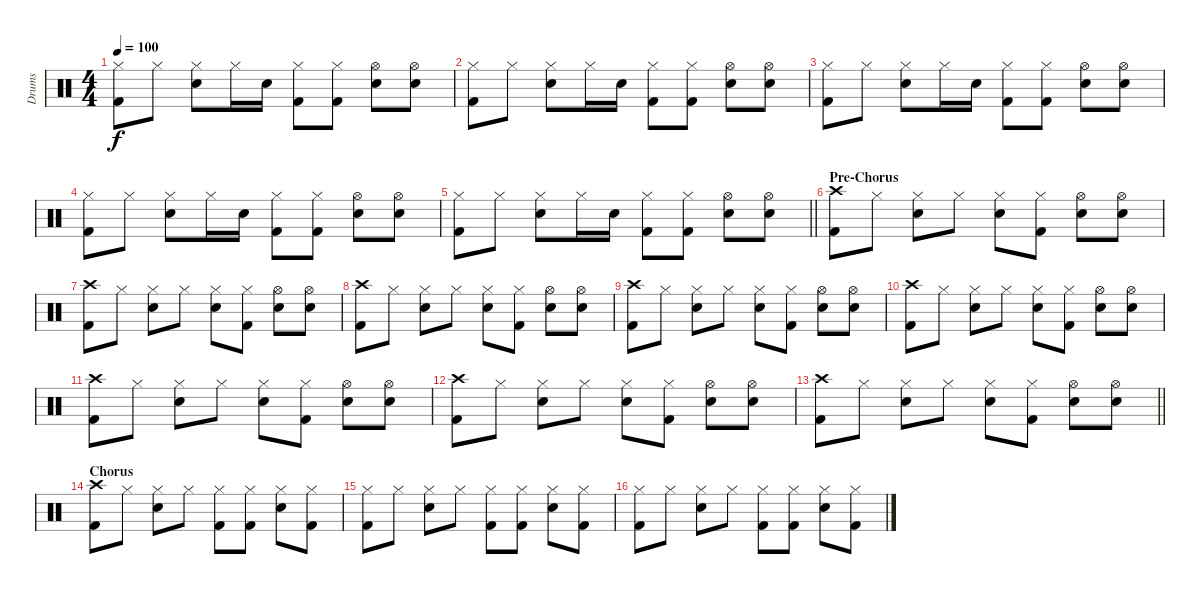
\track ("Drums" "Drums") {instrument percussion}
\staff {score}
\articulation defaults
\ts (4 4)
\tempo 100
\clef neutral
\ks c
("Hi-Hat (closed)" "Kick (hit) 2").8{dy f} "Hi-Hat (closed)".8 ("Hi-Hat (closed)" "Electric Snare (hit)").8 "Hi-Hat (closed)".16 "Electric Snare (hit)".16 ("Hi-Hat (closed)" "Kick (hit) 2").8 ("Hi-Hat (closed)" "Kick (hit) 2").8 ("Hi-Hat (open)" "Electric Snare (hit)").8 ("Hi-Hat (open)" "Electric Snare (hit)").8 |
("Hi-Hat (closed)" "Kick (hit) 2").8 "Hi-Hat (closed)".8 ("Hi-Hat (closed)" "Electric Snare (hit)").8 "Hi-Hat (closed)".16 "Electric Snare (hit)".16 ("Hi-Hat (closed)" "Kick (hit) 2").8 ("Hi-Hat (closed)" "Kick (hit) 2").8 ("Hi-Hat (open)" "Electric Snare (hit)").8 ("Hi-Hat (open)" "Electric Snare (hit)").8 |
("Hi-Hat (closed)" "Kick (hit) 2").8 "Hi-Hat (closed)".8 ("Hi-Hat (closed)" "Electric Snare (hit)").8 "Hi-Hat (closed)".16 "Electric Snare (hit)".16 ("Hi-Hat (closed)" "Kick (hit) 2").8 ("Hi-Hat (closed)" "Kick (hit) 2").8 ("Hi-Hat (open)" "Electric Snare (hit)").8 ("Hi-Hat (open)" "Electric Snare (hit)").8 |
("Hi-Hat (closed)" "Kick (hit) 2").8 "Hi-Hat (closed)".8 ("Hi-Hat (closed)" "Electric Snare (hit)").8 "Hi-Hat (closed)".16 "Electric Snare (hit)".16 ("Hi-Hat (closed)" "Kick (hit) 2").8 ("Hi-Hat (closed)" "Kick (hit) 2").8 ("Hi-Hat (open)" "Electric Snare (hit)").8 ("Hi-Hat (open)" "Electric Snare (hit)").8 |
\barLineRight lightlight
("Hi-Hat (closed)" "Kick (hit) 2").8 "Hi-Hat (closed)".8 ("Hi-Hat (closed)" "Electric Snare (hit)").8 "Hi-Hat (closed)".16 "Electric Snare (hit)".16 ("Hi-Hat (closed)" "Kick (hit) 2").8 ("Hi-Hat (closed)" "Kick (hit) 2").8 ("Hi-Hat (open)" "Electric Snare (hit)").8 ("Hi-Hat (open)" "Electric Snare (hit)").8 |
\section ("" "Pre-Chorus")
("Crash high (hit)" "Kick (hit) 2").8 "Hi-Hat (closed)".8 ("Hi-Hat (closed)" "Electric Snare (hit)").8 "Hi-Hat (closed)".8 ("Hi-Hat (closed)" "Electric Snare (hit)").8 ("Hi-Hat (closed)" "Kick (hit) 2").8 ("Hi-Hat (open)" "Electric Snare (hit)").8 ("Hi-Hat (open)" "Electric Snare (hit)").8 |
("Crash high (hit)" "Kick (hit) 2").8 "Hi-Hat (closed)".8 ("Hi-Hat (closed)" "Electric Snare (hit)").8 "Hi-Hat (closed)".8 ("Hi-Hat (closed)" "Electric Snare (hit)").8 ("Hi-Hat (closed)" "Kick (hit) 2").8 ("Hi-Hat (open)" "Electric Snare (hit)").8 ("Hi-Hat (open)" "Electric Snare (hit)").8 |
("Crash high (hit)" "Kick (hit) 2").8 "Hi-Hat (closed)".8 ("Hi-Hat (closed)" "Electric Snare (hit)").8 "Hi-Hat (closed)".8 ("Hi-Hat (closed)" "Electric Snare (hit)").8 ("Hi-Hat (closed)" "Kick (hit) 2").8 ("Hi-Hat (open)" "Electric Snare (hit)").8 ("Hi-Hat (open)" "Electric Snare (hit)").8 |
("Crash high (hit)" "Kick (hit) 2").8 "Hi-Hat (closed)".8 ("Hi-Hat (closed)" "Electric Snare (hit)").8 "Hi-Hat (closed)".8 ("Hi-Hat (closed)" "Electric Snare (hit)").8 ("Hi-Hat (closed)" "Kick (hit) 2").8 ("Hi-Hat (open)" "Electric Snare (hit)").8 ("Hi-Hat (open)" "Electric Snare (hit)").8 |
("Crash high (hit)" "Kick (hit) 2").8 "Hi-Hat (closed)".8 ("Hi-Hat (closed)" "Electric Snare (hit)").8 "Hi-Hat (closed)".8 ("Hi-Hat (closed)" "Electric Snare (hit)").8 ("Hi-Hat (closed)" "Kick (hit) 2").8 ("Hi-Hat (open)" "Electric Snare (hit)").8 ("Hi-Hat (open)" "Electric Snare (hit)").8 |
("Crash high (hit)" "Kick (hit) 2").8 "Hi-Hat (closed)".8 ("Hi-Hat (closed)" "Electric Snare (hit)").8 "Hi-Hat (closed)".8 ("Hi-Hat (closed)" "Electric Snare (hit)").8 ("Hi-Hat (closed)" "Kick (hit) 2").8 ("Hi-Hat (open)" "Electric Snare (hit)").8 ("Hi-Hat (open)" "Electric Snare (hit)").8 |
("Crash high (hit)" "Kick (hit) 2").8 "Hi-Hat (closed)".8 ("Hi-Hat (closed)" "Electric Snare (hit)").8 "Hi-Hat (closed)".8 ("Hi-Hat (closed)" "Electric Snare (hit)").8 ("Hi-Hat (closed)" "Kick (hit) 2").8 ("Hi-Hat (open)" "Electric Snare (hit)").8 ("Hi-Hat (open)" "Electric Snare (hit)").8 |
\barLineRight lightlight
("Crash high (hit)" "Kick (hit) 2").8 "Hi-Hat (closed)".8 ("Hi-Hat (closed)" "Electric Snare (hit)").8 "Hi-Hat (closed)".8 ("Hi-Hat (closed)" "Electric Snare (hit)").8 ("Hi-Hat (closed)" "Kick (hit) 2").8 ("Hi-Hat (open)" "Electric Snare (hit)").8 ("Hi-Hat (open)" "Electric Snare (hit)").8 |
\section ("" "Chorus")
("Crash high (hit)" "Kick (hit) 2").8 "Hi-Hat (closed)".8 ("Hi-Hat (closed)" "Electric Snare (hit)").8 "Hi-Hat (closed)".8 ("Hi-Hat (closed)" "Kick (hit) 2").8 ("Hi-Hat (closed)" "Kick (hit) 2").8 ("Hi-Hat (closed)" "Electric Snare (hit)").8 ("Hi-Hat (closed)" "Kick (hit) 2").8 |
("Hi-Hat (closed)" "Kick (hit) 2").8 "Hi-Hat (closed)".8 ("Hi-Hat (closed)" "Electric Snare (hit)").8 "Hi-Hat (closed)".8 ("Hi-Hat (closed)" "Kick (hit) 2").8 ("Hi-Hat (closed)" "Kick (hit) 2").8 ("Hi-Hat (closed)" "Electric Snare (hit)").8 ("Hi-Hat (closed)" "Kick (hit) 2").8 |
("Hi-Hat (closed)" "Kick (hit) 2").8 "Hi-Hat (closed)".8 ("Hi-Hat (closed)" "Electric Snare (hit)").8 "Hi-Hat (closed)".8 ("Hi-Hat (closed)" "Kick (hit) 2").8 ("Hi-Hat (closed)" "Kick (hit) 2").8 ("Hi-Hat (closed)" "Electric Snare (hit)").8 ("Hi-Hat (closed)" "Kick (hit) 2").8
